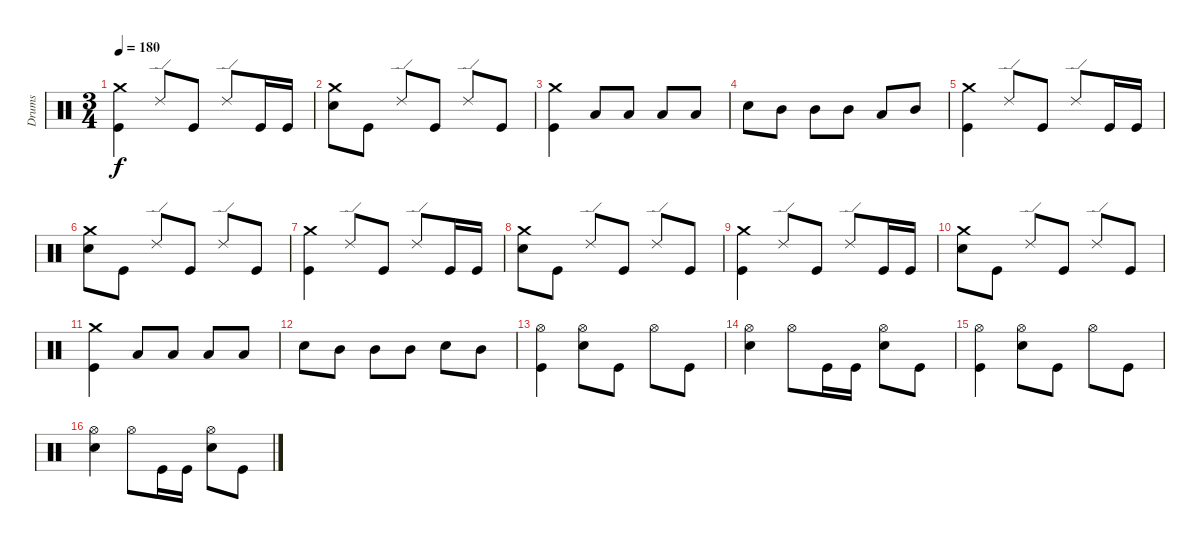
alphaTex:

\track ("Drums" "Drums") {instrument percussion}
\staff {score}
\articulation defaults
\ts (3 4)
\tempo 180
\clef neutral
\ks c
("Crash medium (hit)" "Kick (hit)").4{dy f} "Ride (edge) 2".8 "Kick (hit)".8 "Ride (edge) 2".8 "Kick (hit)".16 "Kick (hit)".16 |
("Crash medium (hit)" "Electric Snare (hit)").8 "Kick (hit)".8 "Ride (edge) 2".8 "Kick (hit)".8 "Ride (edge) 2".8 "Kick (hit)".8 |
("Crash medium (hit)" "Kick (hit)").4 "Low Floor Tom (hit)".8 "Low Floor Tom (hit)".8 "Low Tom (hit)".8 "Low Tom (hit)".8 |
"Electric Snare (hit)".8 "Mid Tom (hit)".8 "Mid Tom (hit)".8 "Mid Tom (hit)".8 "Low Floor Tom (hit)".8 "Mid Tom (hit)".8 |
("Crash medium (hit)" "Kick (hit)").4 "Ride (edge) 2".8 "Kick (hit)".8 "Ride (edge) 2".8 "Kick (hit)".16 "Kick (hit)".16 |
("Crash medium (hit)" "Electric Snare (hit)").8 "Kick (hit)".8 "Ride (edge) 2".8 "Kick (hit)".8 "Ride (edge) 2".8 "Kick (hit)".8 |
("Crash medium (hit)" "Kick (hit)").4 "Ride (edge) 2".8 "Kick (hit)".8 "Ride (edge) 2".8 "Kick (hit)".16 "Kick (hit)".16 |
("Crash medium (hit)" "Electric Snare (hit)").8 "Kick (hit)".8 "Ride (edge) 2".8 "Kick (hit)".8 "Ride (edge) 2".8 "Kick (hit)".8 |
("Crash medium (hit)" "Kick (hit)").4 "Ride (edge) 2".8 "Kick (hit)".8 "Ride (edge) 2".8 "Kick (hit)".16 "Kick (hit)".16 |
("Crash medium (hit)" "Electric Snare (hit)").8 "Kick (hit)".8 "Ride (edge) 2".8 "Kick (hit)".8 "Ride (edge) 2".8 "Kick (hit)".8 |
("Crash medium (hit)" "Kick (hit)").4 "Low Floor Tom (hit)".8 "Low Floor Tom (hit)".8 "Low Tom (hit)".8 "Low Tom (hit)".8 |
"Electric Snare (hit)".8 "Mid Tom (hit)".8 "Mid Tom (hit)".8 "Mid Tom (hit)".8 "Electric Snare (hit)".8 "Mid Tom (hit)".8 |
("Hi-Hat (open)" "Kick (hit)").4 ("Hi-Hat (open)" "Electric Snare (hit)").8 "Kick (hit)".8 "Hi-Hat (open)".8 "Kick (hit)".8 |
("Hi-Hat (open)" "Electric Snare (hit)").4 "Hi-Hat (open)".8 "Kick (hit)".16 "Kick (hit)".16 ("Hi-Hat (open)" "Electric Snare (hit)").8 "Kick (hit)".8 |
("Hi-Hat (open)" "Kick (hit)").4 ("Hi-Hat (open)" "Electric Snare (hit)").8 "Kick (hit)".8 "Hi-Hat (open)".8 "Kick (hit)".8 |
("Hi-Hat (open)" "Electric Snare (hit)").4 "Hi-Hat (open)".8 "Kick (hit)".16 "Kick (hit)".16 ("Hi-Hat (open)" "Electric Snare (hit)").8 "Kick (hit)".8
